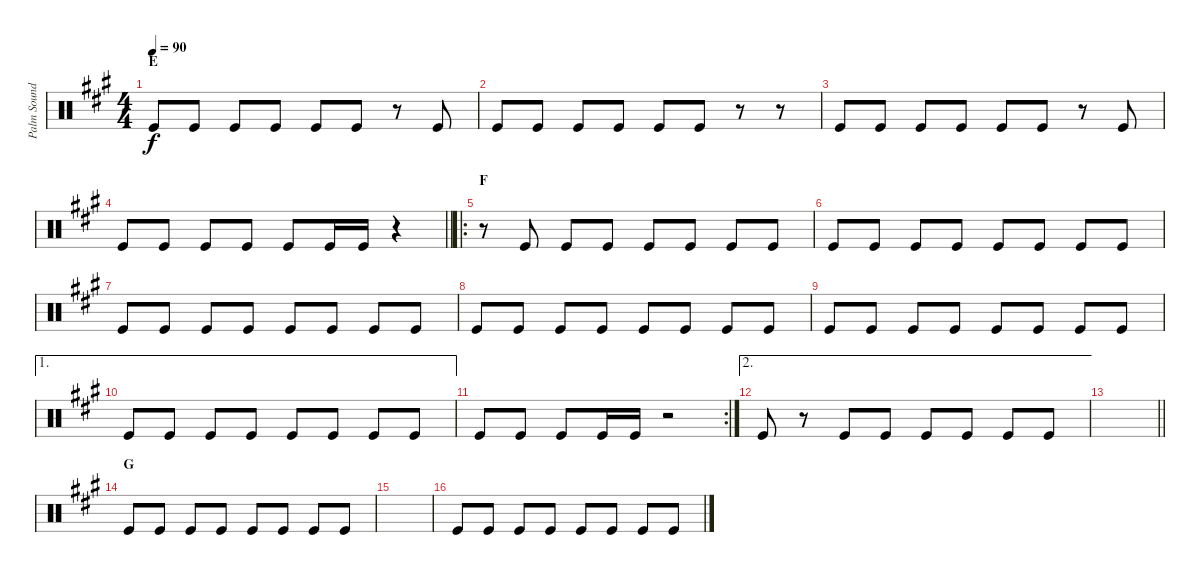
\track ("Palm Sound" "Palm Sound") {instrument percussion}
\staff {score}
\articulation defaults
\ts (4 4)
\section ("" "E")
\tempo 90
\clef neutral
\ks a "Kick (hit)".8{dy f} "Kick (hit)".8 "Kick (hit)".8 "Kick (hit)".8 "Kick (hit)".8 "Kick (hit)".8
r.8 "Kick (hit)".8 |
"Kick (hit)".8 "Kick (hit)".8 "Kick (hit)".8 "Kick (hit)".8 "Kick (hit)".8 "Kick (hit)".8 r.8 r.8 |
"Kick (hit)".8 "Kick (hit)".8 "Kick (hit)".8 "Kick (hit)".8 "Kick (hit)".8 "Kick (hit)".8 r.8 "Kick (hit)".8 |
\barLineRight lightlight "Kick (hit)".8 "Kick (hit)".8 "Kick (hit)".8 "Kick (hit)".8 "Kick (hit)".8 "Kick (hit)".16 "Kick (hit)".16
r.4 |
\ro
\section ("" "F")
r.8 "Kick (hit)".8 "Kick (hit)".8 "Kick (hit)".8 "Kick (hit)".8 "Kick (hit)".8 "Kick (hit)".8 "Kick (hit)".8 |
"Kick (hit)".8 "Kick (hit)".8 "Kick (hit)".8 "Kick (hit)".8 "Kick (hit)".8 "Kick (hit)".8 "Kick (hit)".8 "Kick (hit)".8 |
"Kick (hit)".8 "Kick (hit)".8 "Kick (hit)".8 "Kick (hit)".8 "Kick (hit)".8 "Kick (hit)".8 "Kick (hit)".8 "Kick (hit)".8 |
"Kick (hit)".8 "Kick (hit)".8 "Kick (hit)".8 "Kick (hit)".8 "Kick (hit)".8 "Kick (hit)".8 "Kick (hit)".8 "Kick (hit)".8 |
"Kick (hit)".8 "Kick (hit)".8 "Kick (hit)".8 "Kick (hit)".8 "Kick (hit)".8 "Kick (hit)".8 "Kick (hit)".8 "Kick (hit)".8 |
\ae 1 "Kick (hit)".8 "Kick (hit)".8 "Kick (hit)".8 "Kick (hit)".8 "Kick (hit)".8 "Kick (hit)".8 "Kick (hit)".8 "Kick (hit)".8
|
\rc 2 "Kick (hit)".8 "Kick (hit)".8 "Kick (hit)".8 "Kick (hit)".16 "Kick (hit)".16
r.2 |
\ae 2 "Kick (hit)".8
r.8 "Kick (hit)".8 "Kick (hit)".8 "Kick (hit)".8 "Kick (hit)".8 "Kick (hit)".8 "Kick (hit)".8 |
\barLineRight lightlight
|
\section ("" "G")
"Kick (hit)".8 "Kick (hit)".8 "Kick (hit)".8 "Kick (hit)".8 "Kick (hit)".8 "Kick (hit)".8 "Kick (hit)".8 "Kick (hit)".8 |
|
"Kick (hit)".8 "Kick (hit)".8 "Kick (hit)".8 "Kick (hit)".8 "Kick (hit)".8 "Kick (hit)".8 "Kick (hit)".8 "Kick (hit)".8
